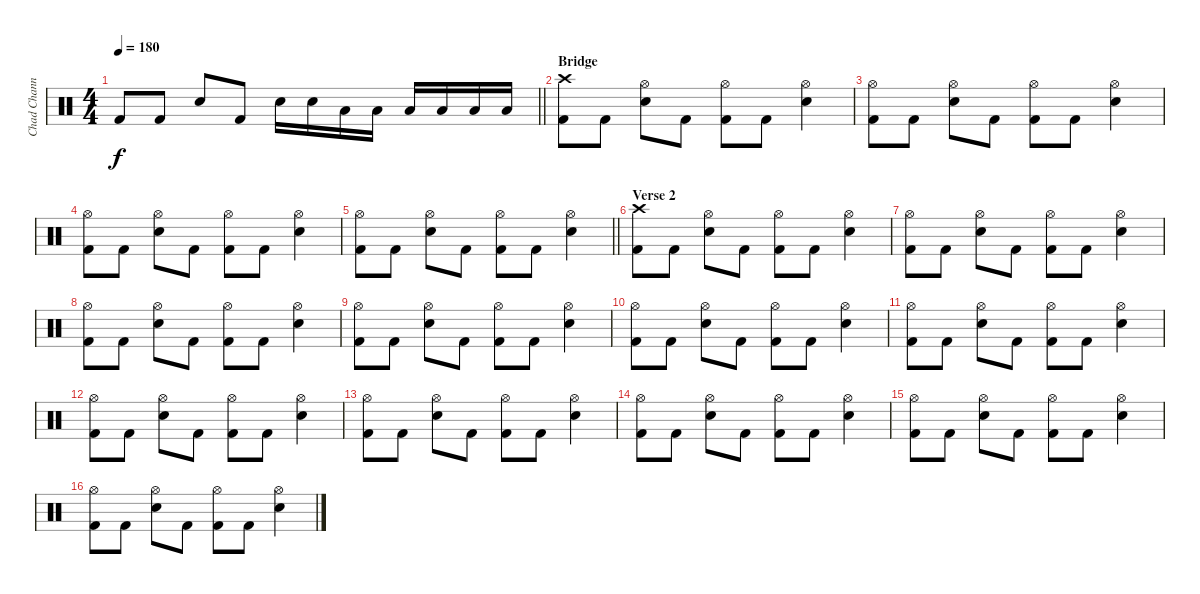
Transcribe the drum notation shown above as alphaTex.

\track ("Chad Channing" "Chad Chann") {instrument percussion}
\staff {score}
\articulation defaults
\ts (4 4)
\tempo 180
\clef neutral
\barLineRight lightlight
\ks c "Kick (hit) 2".8{dy f} "Kick (hit) 2".8 "Snare (hit) 2".8 "Kick (hit) 2".8 "Snare (hit) 2".16 "Snare (hit) 2".16 "Low Tom (hit)".16 "Low Tom (hit)".16 "Low Floor Tom (hit)".16 "Low Floor Tom (hit)".16 "Low Floor Tom (hit)".16 "Low Floor Tom (hit)".16
|
\section ("" "Bridge")
("Crash high (hit)" "Kick (hit) 2").8 "Kick (hit) 2".8 ("Hi-Hat (open)" "Snare (hit) 2").8 "Kick (hit) 2".8 ("Hi-Hat (open)" "Kick (hit) 2").8 "Kick (hit) 2".8 ("Hi-Hat (open)" "Snare (hit) 2").4 |
("Hi-Hat (open)" "Kick (hit) 2").8 "Kick (hit) 2".8 ("Hi-Hat (open)" "Snare (hit) 2").8 "Kick (hit) 2".8 ("Hi-Hat (open)" "Kick (hit) 2").8 "Kick (hit) 2".8 ("Hi-Hat (open)" "Snare (hit) 2").4 |
("Hi-Hat (open)" "Kick (hit) 2").8 "Kick (hit) 2".8 ("Hi-Hat (open)" "Snare (hit) 2").8 "Kick (hit) 2".8 ("Hi-Hat (open)" "Kick (hit) 2").8 "Kick (hit) 2".8 ("Hi-Hat (open)" "Snare (hit) 2").4 |
\barLineRight lightlight
("Hi-Hat (open)" "Kick (hit) 2").8 "Kick (hit) 2".8 ("Hi-Hat (open)" "Snare (hit) 2").8 "Kick (hit) 2".8 ("Hi-Hat (open)" "Kick (hit) 2").8 "Kick (hit) 2".8 ("Hi-Hat (open)" "Snare (hit) 2").4 |
\section ("" "Verse 2")
("Crash high (hit)" "Kick (hit) 2").8 "Kick (hit) 2".8 ("Hi-Hat (open)" "Snare (hit) 2").8 "Kick (hit) 2".8 ("Hi-Hat (open)" "Kick (hit) 2").8 "Kick (hit) 2".8 ("Hi-Hat (open)" "Snare (hit) 2").4 |
("Hi-Hat (open)" "Kick (hit) 2").8 "Kick (hit) 2".8 ("Hi-Hat (open)" "Snare (hit) 2").8 "Kick (hit) 2".8 ("Hi-Hat (open)" "Kick (hit) 2").8 "Kick (hit) 2".8 ("Hi-Hat (open)" "Snare (hit) 2").4 |
("Hi-Hat (open)" "Kick (hit) 2").8 "Kick (hit) 2".8 ("Hi-Hat (open)" "Snare (hit) 2").8 "Kick (hit) 2".8 ("Hi-Hat (open)" "Kick (hit) 2").8 "Kick (hit) 2".8 ("Hi-Hat (open)" "Snare (hit) 2").4 |
("Hi-Hat (open)" "Kick (hit) 2").8 "Kick (hit) 2".8 ("Hi-Hat (open)" "Snare (hit) 2").8 "Kick (hit) 2".8 ("Hi-Hat (open)" "Kick (hit) 2").8 "Kick (hit) 2".8 ("Hi-Hat (open)" "Snare (hit) 2").4 |
("Hi-Hat (open)" "Kick (hit) 2").8 "Kick (hit) 2".8 ("Hi-Hat (open)" "Snare (hit) 2").8 "Kick (hit) 2".8 ("Hi-Hat (open)" "Kick (hit) 2").8 "Kick (hit) 2".8 ("Hi-Hat (open)" "Snare (hit) 2").4 |
("Hi-Hat (open)" "Kick (hit) 2").8 "Kick (hit) 2".8 ("Hi-Hat (open)" "Snare (hit) 2").8 "Kick (hit) 2".8 ("Hi-Hat (open)" "Kick (hit) 2").8 "Kick (hit) 2".8 ("Hi-Hat (open)" "Snare (hit) 2").4 |
("Hi-Hat (open)" "Kick (hit) 2").8 "Kick (hit) 2".8 ("Hi-Hat (open)" "Snare (hit) 2").8 "Kick (hit) 2".8 ("Hi-Hat (open)" "Kick (hit) 2").8 "Kick (hit) 2".8 ("Hi-Hat (open)" "Snare (hit) 2").4 |
("Hi-Hat (open)" "Kick (hit) 2").8 "Kick (hit) 2".8 ("Hi-Hat (open)" "Snare (hit) 2").8 "Kick (hit) 2".8 ("Hi-Hat (open)" "Kick (hit) 2").8 "Kick (hit) 2".8 ("Hi-Hat (open)" "Snare (hit) 2").4 |
("Hi-Hat (open)" "Kick (hit) 2").8 "Kick (hit) 2".8 ("Hi-Hat (open)" "Snare (hit) 2").8 "Kick (hit) 2".8 ("Hi-Hat (open)" "Kick (hit) 2").8 "Kick (hit) 2".8 ("Hi-Hat (open)" "Snare (hit) 2").4 |
("Hi-Hat (open)" "Kick (hit) 2").8 "Kick (hit) 2".8 ("Hi-Hat (open)" "Snare (hit) 2").8 "Kick (hit) 2".8 ("Hi-Hat (open)" "Kick (hit) 2").8 "Kick (hit) 2".8 ("Hi-Hat (open)" "Snare (hit) 2").4 |
("Hi-Hat (open)" "Kick (hit) 2").8 "Kick (hit) 2".8 ("Hi-Hat (open)" "Snare (hit) 2").8 "Kick (hit) 2".8 ("Hi-Hat (open)" "Kick (hit) 2").8 "Kick (hit) 2".8 ("Hi-Hat (open)" "Snare (hit) 2").4
